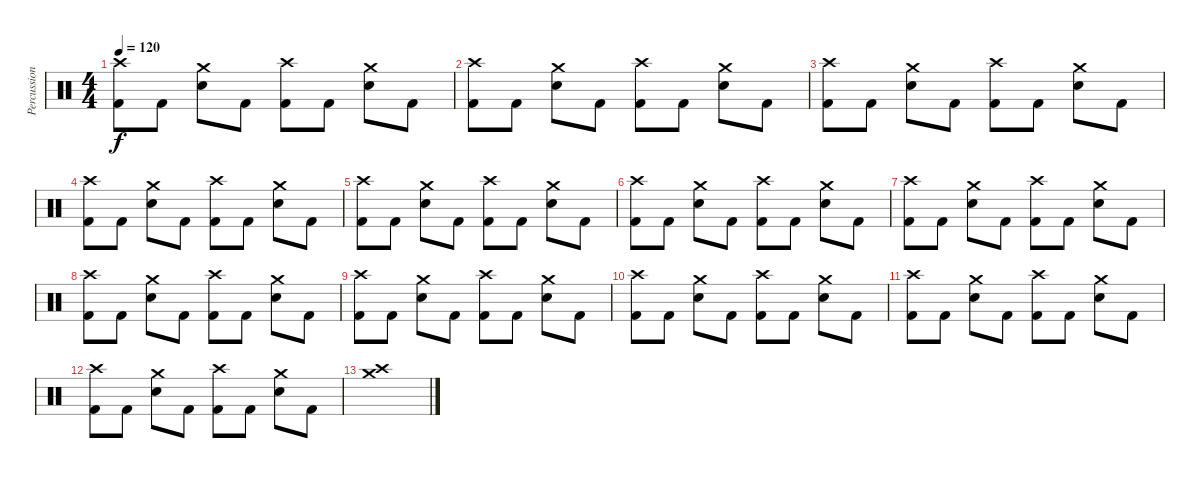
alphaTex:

\track ("Percussion" "Percussion") {instrument percussion}
\staff {score}
\articulation defaults
\ts (4 4)
\tempo 120
\clef neutral
\ks c
("Crash high (hit)" "Kick (hit) 2").8{dy f} "Kick (hit) 2".8 ("Crash medium (hit)" "Snare (hit) 2").8 "Kick (hit) 2".8 ("Crash high (hit)" "Kick (hit) 2").8 "Kick (hit) 2".8 ("Crash medium (hit)" "Snare (hit) 2").8 "Kick (hit) 2".8 |
("Crash high (hit)" "Kick (hit) 2").8 "Kick (hit) 2".8 ("Crash medium (hit)" "Snare (hit) 2").8 "Kick (hit) 2".8 ("Crash high (hit)" "Kick (hit) 2").8 "Kick (hit) 2".8 ("Crash medium (hit)" "Snare (hit) 2").8 "Kick (hit) 2".8 |
("Crash high (hit)" "Kick (hit) 2").8 "Kick (hit) 2".8 ("Crash medium (hit)" "Snare (hit) 2").8 "Kick (hit) 2".8 ("Crash high (hit)" "Kick (hit) 2").8 "Kick (hit) 2".8 ("Crash medium (hit)" "Snare (hit) 2").8 "Kick (hit) 2".8 |
("Crash high (hit)" "Kick (hit) 2").8 "Kick (hit) 2".8 ("Crash medium (hit)" "Snare (hit) 2").8 "Kick (hit) 2".8 ("Crash high (hit)" "Kick (hit) 2").8 "Kick (hit) 2".8 ("Crash medium (hit)" "Snare (hit) 2").8 "Kick (hit) 2".8 |
("Crash high (hit)" "Kick (hit) 2").8 "Kick (hit) 2".8 ("Crash medium (hit)" "Snare (hit) 2").8 "Kick (hit) 2".8 ("Crash high (hit)" "Kick (hit) 2").8 "Kick (hit) 2".8 ("Crash medium (hit)" "Snare (hit) 2").8 "Kick (hit) 2".8 |
("Crash high (hit)" "Kick (hit) 2").8 "Kick (hit) 2".8 ("Crash medium (hit)" "Snare (hit) 2").8 "Kick (hit) 2".8 ("Crash high (hit)" "Kick (hit) 2").8 "Kick (hit) 2".8 ("Crash medium (hit)" "Snare (hit) 2").8 "Kick (hit) 2".8 |
("Crash high (hit)" "Kick (hit) 2").8 "Kick (hit) 2".8 ("Crash medium (hit)" "Snare (hit) 2").8 "Kick (hit) 2".8 ("Crash high (hit)" "Kick (hit) 2").8 "Kick (hit) 2".8 ("Crash medium (hit)" "Snare (hit) 2").8 "Kick (hit) 2".8 |
("Crash high (hit)" "Kick (hit) 2").8 "Kick (hit) 2".8 ("Crash medium (hit)" "Snare (hit) 2").8 "Kick (hit) 2".8 ("Crash high (hit)" "Kick (hit) 2").8 "Kick (hit) 2".8 ("Crash medium (hit)" "Snare (hit) 2").8 "Kick (hit) 2".8 |
("Crash high (hit)" "Kick (hit) 2").8 "Kick (hit) 2".8 ("Crash medium (hit)" "Snare (hit) 2").8 "Kick (hit) 2".8 ("Crash high (hit)" "Kick (hit) 2").8 "Kick (hit) 2".8 ("Crash medium (hit)" "Snare (hit) 2").8 "Kick (hit) 2".8 |
("Crash high (hit)" "Kick (hit) 2").8 "Kick (hit) 2".8 ("Crash medium (hit)" "Snare (hit) 2").8 "Kick (hit) 2".8 ("Crash high (hit)" "Kick (hit) 2").8 "Kick (hit) 2".8 ("Crash medium (hit)" "Snare (hit) 2").8 "Kick (hit) 2".8 |
("Crash high (hit)" "Kick (hit) 2").8 "Kick (hit) 2".8 ("Crash medium (hit)" "Snare (hit) 2").8 "Kick (hit) 2".8 ("Crash high (hit)" "Kick (hit) 2").8 "Kick (hit) 2".8 ("Crash medium (hit)" "Snare (hit) 2").8 "Kick (hit) 2".8 |
("Crash high (hit)" "Kick (hit) 2").8 "Kick (hit) 2".8 ("Crash medium (hit)" "Snare (hit) 2").8 "Kick (hit) 2".8 ("Crash high (hit)" "Kick (hit) 2").8 "Kick (hit) 2".8 ("Crash medium (hit)" "Snare (hit) 2").8 "Kick (hit) 2".8 |
("Crash medium (hit)" "Crash high (hit)").1
